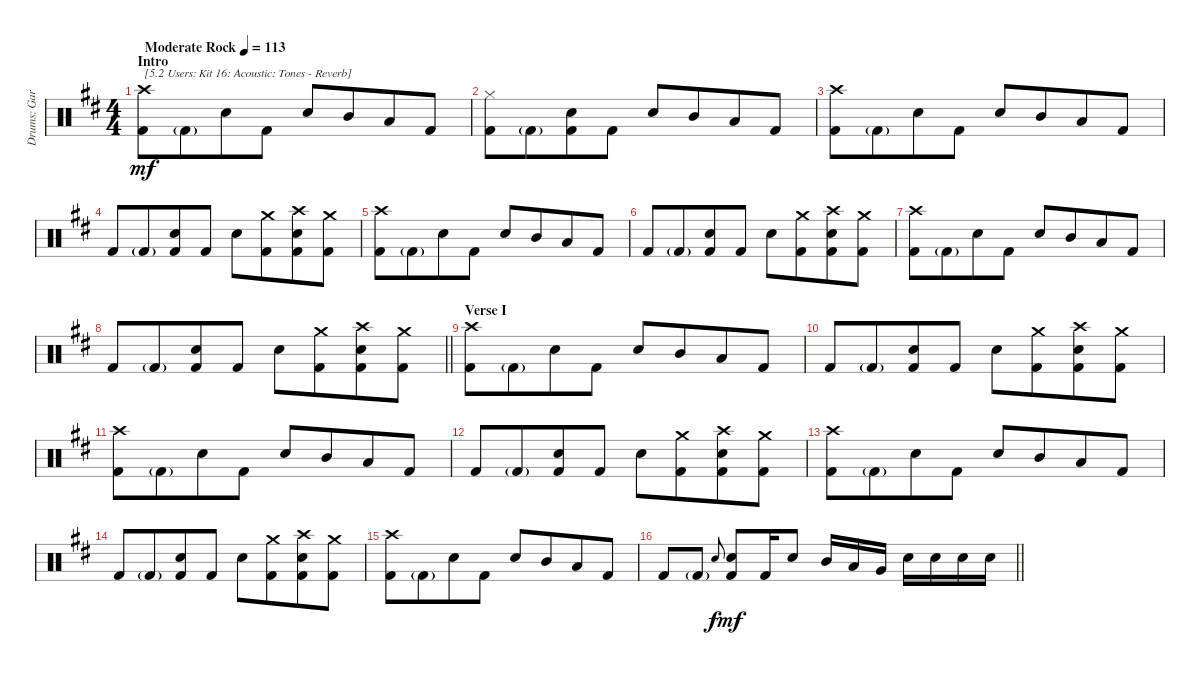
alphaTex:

\track ("Drums: Gary" "Drums: Gar") {instrument percussion}
\staff {score}
\articulation defaults
\ts (4 4)
\section ("" "Intro")
\tempo (113 "Moderate Rock")
\clef neutral
\ks d
("Crash high (hit)" "Kick (hit) 2").8{txt "[5.2 Users: Kit 16: Acoustic: Tones - Reverb]" dy mf} "Kick (hit) 2"{g}.8{beam merge} "Electric Snare (hit)".8 "Kick (hit) 2".8 "Snare (hit) 2".8 "Mid Tom (hit)".8{beam merge} "Low Tom (hit)".8 "Kick (hit) 2".8 |
("Hi-Hat (closed)" "Kick (hit) 2").8 "Kick (hit) 2"{g}.8{beam merge} ("Snare (hit) 2" "Kick (hit) 2").8 "Kick (hit) 2".8 "Snare (hit) 2".8 "Mid Tom (hit)".8{beam merge} "Low Tom (hit)".8 "Kick (hit) 2".8 |
("Crash high (hit)" "Kick (hit) 2").8 "Kick (hit) 2"{g}.8{beam merge} "Electric Snare (hit)".8 "Kick (hit) 2".8 "Snare (hit) 2".8 "Mid Tom (hit)".8{beam merge} "Low Tom (hit)".8 "Kick (hit) 2".8 |
"Kick (hit) 2".8 "Kick (hit) 2"{g}.8{beam merge} ("Snare (hit) 2" "Kick (hit) 2").8 "Kick (hit) 2".8 "Electric Snare (hit)".8 ("Crash medium (hit)" "Kick (hit) 2").8{beam merge} ("Crash high (hit)" "Snare (hit) 2" "Kick (hit) 2").8 ("Crash medium (hit)" "Kick (hit) 2").8 |
("Crash high (hit)" "Kick (hit) 2").8 "Kick (hit) 2"{g}.8{beam merge} "Electric Snare (hit)".8 "Kick (hit) 2".8 "Snare (hit) 2".8 "Mid Tom (hit)".8{beam merge} "Low Tom (hit)".8 "Kick (hit) 2".8 |
"Kick (hit) 2".8 "Kick (hit) 2"{g}.8{beam merge} ("Snare (hit) 2" "Kick (hit) 2").8 "Kick (hit) 2".8 "Electric Snare (hit)".8 ("Crash medium (hit)" "Kick (hit) 2").8{beam merge} ("Crash high (hit)" "Snare (hit) 2" "Kick (hit) 2").8 ("Crash medium (hit)" "Kick (hit) 2").8 |
("Crash high (hit)" "Kick (hit) 2").8 "Kick (hit) 2"{g}.8{beam merge} "Electric Snare (hit)".8 "Kick (hit) 2".8 "Snare (hit) 2".8 "Mid Tom (hit)".8{beam merge} "Low Tom (hit)".8 "Kick (hit) 2".8 |
\barLineRight lightlight "Kick (hit) 2".8 "Kick (hit) 2"{g}.8{beam merge}
("Snare (hit) 2" "Kick (hit) 2").8 "Kick (hit) 2".8 "Electric Snare (hit)".8 ("Crash medium (hit)" "Kick (hit) 2").8{beam merge} ("Crash high (hit)" "Snare (hit) 2" "Kick (hit) 2").8 ("Crash medium (hit)" "Kick (hit) 2").8 |
\section ("" "Verse I")
("Crash high (hit)" "Kick (hit) 2").8 "Kick (hit) 2"{g}.8{beam merge} "Electric Snare (hit)".8 "Kick (hit) 2".8 "Snare (hit) 2".8 "Mid Tom (hit)".8{beam merge} "Low Tom (hit)".8 "Kick (hit) 2".8 |
"Kick (hit) 2".8 "Kick (hit) 2"{g}.8{beam merge} ("Snare (hit) 2" "Kick (hit) 2").8 "Kick (hit) 2".8 "Electric Snare (hit)".8 ("Crash medium (hit)" "Kick (hit) 2").8{beam merge} ("Crash high (hit)" "Snare (hit) 2" "Kick (hit) 2").8 ("Crash medium (hit)" "Kick (hit) 2").8 |
("Crash high (hit)" "Kick (hit) 2").8 "Kick (hit) 2"{g}.8{beam merge} "Electric Snare (hit)".8 "Kick (hit) 2".8 "Snare (hit) 2".8 "Mid Tom (hit)".8{beam merge} "Low Tom (hit)".8 "Kick (hit) 2".8 |
"Kick (hit) 2".8 "Kick (hit) 2"{g}.8{beam merge} ("Snare (hit) 2" "Kick (hit) 2").8 "Kick (hit) 2".8 "Electric Snare (hit)".8 ("Crash medium (hit)" "Kick (hit) 2").8{beam merge} ("Crash high (hit)" "Snare (hit) 2" "Kick (hit) 2").8 ("Crash medium (hit)" "Kick (hit) 2").8 |
("Crash high (hit)" "Kick (hit) 2").8 "Kick (hit) 2"{g}.8{beam merge} "Electric Snare (hit)".8 "Kick (hit) 2".8 "Snare (hit) 2".8 "Mid Tom (hit)".8{beam merge} "Low Tom (hit)".8 "Kick (hit) 2".8 |
"Kick (hit) 2".8 "Kick (hit) 2"{g}.8{beam merge} ("Snare (hit) 2" "Kick (hit) 2").8 "Kick (hit) 2".8 "Electric Snare (hit)".8 ("Crash medium (hit)" "Kick (hit) 2").8{beam merge} ("Crash high (hit)" "Snare (hit) 2" "Kick (hit) 2").8 ("Crash medium (hit)" "Kick (hit) 2").8 |
("Crash high (hit)" "Kick (hit) 2").8 "Kick (hit) 2"{g}.8{beam merge} "Electric Snare (hit)".8 "Kick (hit) 2".8 "Snare (hit) 2".8 "Mid Tom (hit)".8{beam merge} "Low Tom (hit)".8 "Kick (hit) 2".8 |
\barLineRight lightlight "Kick (hit) 2".8 "Kick (hit) 2"{g}.8 "Electric Snare (hit)".8{gr onbeat dy f beam merge}
("Snare (hit) 2" "Kick (hit) 2").8{dy mf} "Kick (hit) 2".16 "Electric Snare (hit)".8 "Mid Tom (hit)".16 "Low Tom (hit)".16 "Very Low Tom (hit)".16 "Electric Snare (hit)".16 "Electric Snare (hit)".16 "Electric Snare (hit)".16 "Electric Snare (hit)".16
